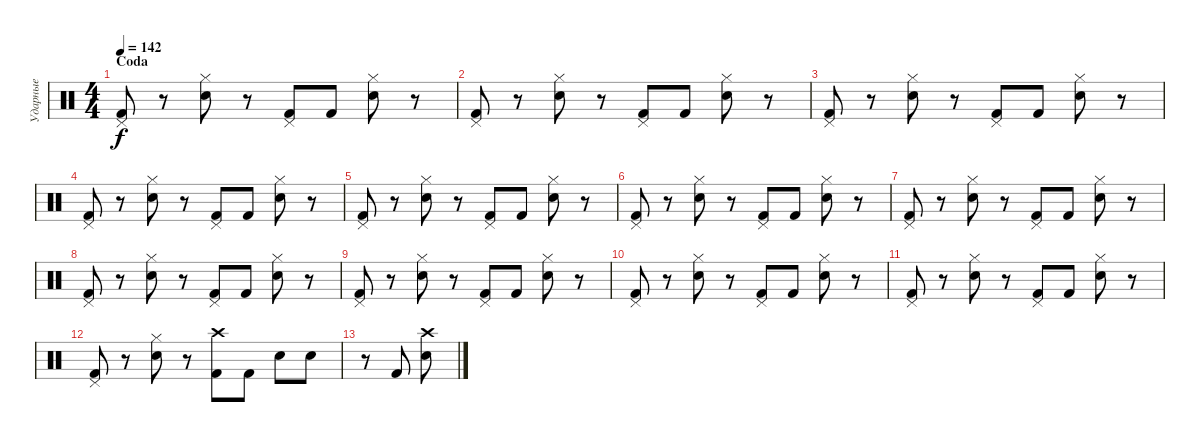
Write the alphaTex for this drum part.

\track ("Ударные" "Ударные") {instrument percussion}
\staff {score}
\articulation defaults
\ts (4 4)
\section ("" "Coda")
\tempo 142
\clef neutral
\ks c
("Pedal Hi-Hat (hit)" "Kick (hit) 2").8{dy f} r.8 ("Hi-Hat (closed)" "Electric Snare (hit)").8 r.8 ("Pedal Hi-Hat (hit)" "Kick (hit) 2").8 "Kick (hit) 2".8 ("Hi-Hat (closed)" "Electric Snare (hit)").8 r.8 |
("Pedal Hi-Hat (hit)" "Kick (hit) 2").8 r.8 ("Hi-Hat (closed)" "Electric Snare (hit)").8 r.8 ("Pedal Hi-Hat (hit)" "Kick (hit) 2").8 "Kick (hit) 2".8 ("Hi-Hat (closed)" "Electric Snare (hit)").8 r.8 |
("Pedal Hi-Hat (hit)" "Kick (hit) 2").8 r.8 ("Hi-Hat (closed)" "Electric Snare (hit)").8 r.8 ("Pedal Hi-Hat (hit)" "Kick (hit) 2").8 "Kick (hit) 2".8 ("Hi-Hat (closed)" "Electric Snare (hit)").8 r.8 |
("Pedal Hi-Hat (hit)" "Kick (hit) 2").8 r.8 ("Hi-Hat (closed)" "Electric Snare (hit)").8 r.8 ("Pedal Hi-Hat (hit)" "Kick (hit) 2").8 "Kick (hit) 2".8 ("Hi-Hat (closed)" "Electric Snare (hit)").8 r.8 |
("Pedal Hi-Hat (hit)" "Kick (hit) 2").8 r.8 ("Hi-Hat (closed)" "Electric Snare (hit)").8 r.8 ("Pedal Hi-Hat (hit)" "Kick (hit) 2").8 "Kick (hit) 2".8 ("Hi-Hat (closed)" "Electric Snare (hit)").8 r.8 |
("Pedal Hi-Hat (hit)" "Kick (hit) 2").8 r.8 ("Hi-Hat (closed)" "Electric Snare (hit)").8 r.8 ("Pedal Hi-Hat (hit)" "Kick (hit) 2").8 "Kick (hit) 2".8 ("Hi-Hat (closed)" "Electric Snare (hit)").8 r.8 |
("Pedal Hi-Hat (hit)" "Kick (hit) 2").8 r.8 ("Hi-Hat (closed)" "Electric Snare (hit)").8 r.8 ("Pedal Hi-Hat (hit)" "Kick (hit) 2").8 "Kick (hit) 2".8 ("Hi-Hat (closed)" "Electric Snare (hit)").8 r.8 |
("Pedal Hi-Hat (hit)" "Kick (hit) 2").8 r.8 ("Hi-Hat (closed)" "Electric Snare (hit)").8 r.8 ("Pedal Hi-Hat (hit)" "Kick (hit) 2").8 "Kick (hit) 2".8 ("Hi-Hat (closed)" "Electric Snare (hit)").8 r.8 |
("Pedal Hi-Hat (hit)" "Kick (hit) 2").8 r.8 ("Hi-Hat (closed)" "Electric Snare (hit)").8 r.8 ("Pedal Hi-Hat (hit)" "Kick (hit) 2").8 "Kick (hit) 2".8 ("Hi-Hat (closed)" "Electric Snare (hit)").8 r.8 |
("Pedal Hi-Hat (hit)" "Kick (hit) 2").8 r.8 ("Hi-Hat (closed)" "Electric Snare (hit)").8 r.8 ("Pedal Hi-Hat (hit)" "Kick (hit) 2").8 "Kick (hit) 2".8 ("Hi-Hat (closed)" "Electric Snare (hit)").8 r.8 |
("Pedal Hi-Hat (hit)" "Kick (hit) 2").8 r.8 ("Hi-Hat (closed)" "Electric Snare (hit)").8 r.8 ("Pedal Hi-Hat (hit)" "Kick (hit) 2").8 "Kick (hit) 2".8 ("Hi-Hat (closed)" "Electric Snare (hit)").8 r.8 |
("Pedal Hi-Hat (hit)" "Kick (hit) 2").8 r.8 ("Hi-Hat (closed)" "Electric Snare (hit)").8 r.8 ("Crash high (hit)" "Kick (hit) 2").8 "Kick (hit) 2".8 "Electric Snare (hit)".8 "Electric Snare (hit)".8 |
r.8 "Kick (hit) 2".8 ("Crash high (hit)" "Electric Snare (hit)").8
